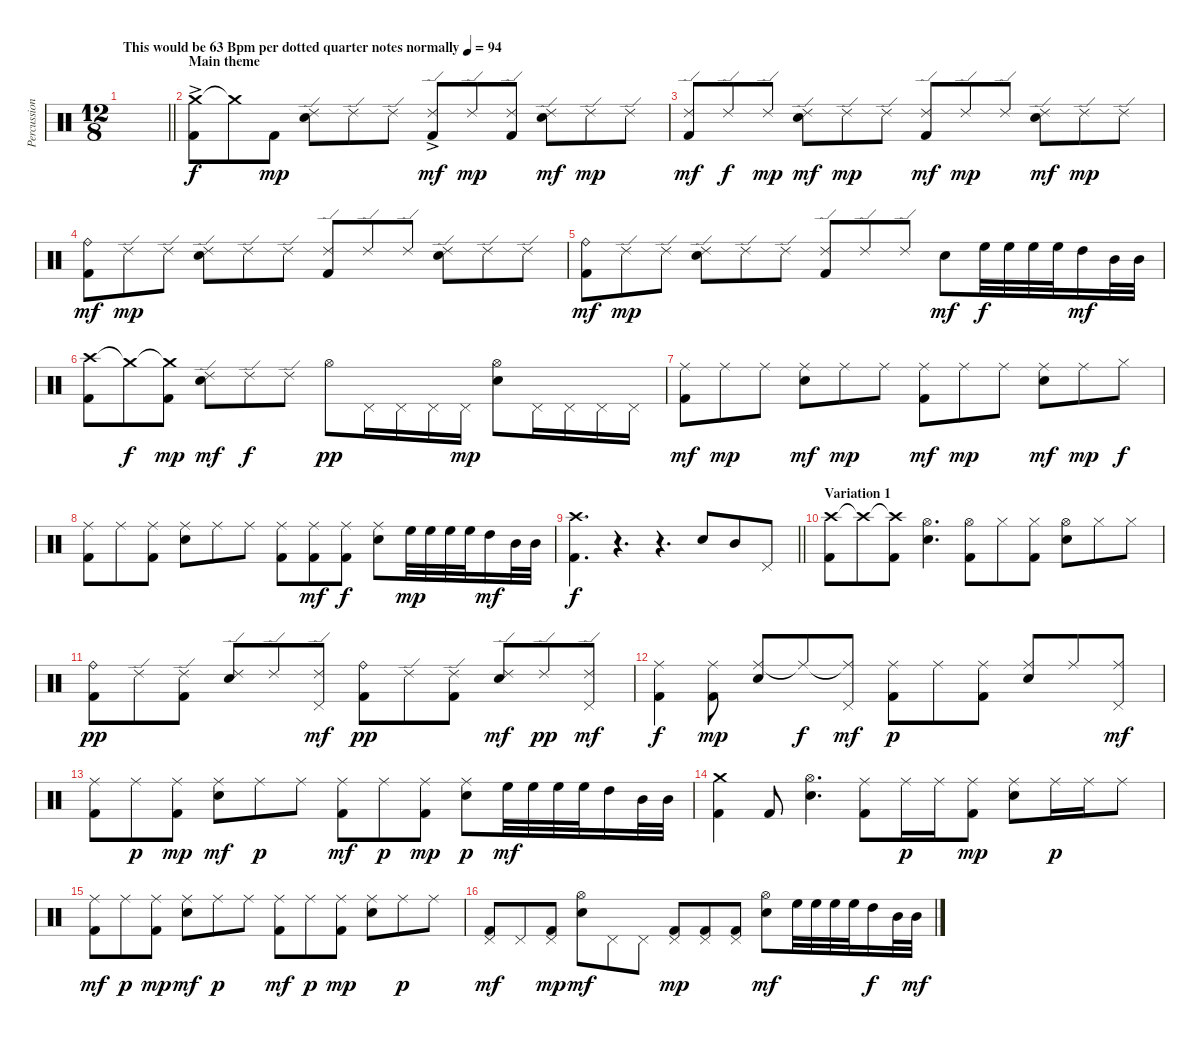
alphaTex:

\track ("Percussions" "Percussion") {instrument percussion}
\staff {score}
\articulation defaults
\ts (12 8)
\tempo (94 "This would be 63 Bpm per dotted quarter notes normally")
\tempo 84
\tempo (94 "This would be 63 Bpm per dotted quarter notes normally")
\clef neutral
\barLineRight lightlight
\ks c
|
\section ("" "Main theme")
("Crash medium (hit)" "Kick (hit) 2"{ac}).8 "Crash medium (hit)"{t}.8 "Kick (hit) 2".8{dy mp} ("Ride (edge) 2" "Electric Snare (hit)").8 "Ride (edge) 2".8 "Ride (edge) 2".8 ("Ride (edge) 2" "Kick (hit) 2"{ac}).8{dy mf} "Ride (edge) 2".8{dy mp} ("Ride (edge) 2" "Kick (hit) 2").8 ("Ride (edge) 2" "Electric Snare (hit)").8{dy mf} "Ride (edge) 2".8{dy mp} "Ride (edge) 2".8 |
("Ride (edge) 2" "Kick (hit) 2").8{dy mf} "Ride (edge) 2".8{dy f} "Ride (edge) 2".8{dy mp} ("Ride (edge) 2" "Electric Snare (hit)").8{dy mf} "Ride (edge) 2".8{dy mp} "Ride (edge) 2".8 ("Ride (edge) 2" "Kick (hit) 2").8{dy mf} "Ride (edge) 2".8{dy mp} "Ride (edge) 2".8 ("Ride (edge) 2" "Electric Snare (hit)").8{dy mf} "Ride (edge) 2".8{dy mp} "Ride (edge) 2".8 |
("Ride (bell)" "Kick (hit) 2").8{dy mf} "Ride (edge) 2".8{dy mp} "Ride (edge) 2".8 ("Ride (edge) 2" "Electric Snare (hit)").8 "Ride (edge) 2".8 "Ride (edge) 2".8 ("Ride (edge) 2" "Kick (hit) 2").8 "Ride (edge) 2".8 "Ride (edge) 2".8 ("Ride (edge) 2" "Electric Snare (hit)").8 "Ride (edge) 2".8 "Ride (edge) 2".8 |
("Ride (bell)" "Kick (hit) 2").8{dy mf} "Ride (edge) 2".8{dy mp} "Ride (edge) 2".8 ("Ride (edge) 2" "Electric Snare (hit)").8 "Ride (edge) 2".8 "Ride (edge) 2".8 ("Ride (edge) 2" "Kick (hit) 2").8 "Ride (edge) 2".8 "Ride (edge) 2".8 "Electric Snare (hit)".8{dy mf} "High Floor Tom (hit)".32{dy f} "High Floor Tom (hit)".32 "High Floor Tom (hit)".32 "High Floor Tom (hit)".32 "High Tom (hit)".16{dy mf} "Mid Tom (hit)".32 "Mid Tom (hit)".32 |
("Crash high (hit)" "Kick (hit) 2").8 "Crash medium (hit)"{t}.8{dy f} ("Crash medium (hit)"{t} "Kick (hit) 2").8{dy mp} ("Ride (edge) 2" "Electric Snare (hit)").8{dy mf} "Ride (edge) 2".8{dy f} "Ride (edge) 2".8 "Hi-Hat (open)".8{dy pp} "Pedal Hi-Hat (hit)".16 "Pedal Hi-Hat (hit)".16 "Pedal Hi-Hat (hit)".16 "Pedal Hi-Hat (hit)".16{dy mp} ("Hi-Hat (open)" "Electric Snare (hit)").8 "Pedal Hi-Hat (hit)".16 "Pedal Hi-Hat (hit)".16 "Pedal Hi-Hat (hit)".16 "Pedal Hi-Hat (hit)".16 |
("Ride (middle)" "Kick (hit) 2").8{dy mf} "Ride (middle)".8{dy mp} "Ride (middle)".8 ("Ride (middle)" "Electric Snare (hit)").8{dy mf} "Ride (middle)".8{dy mp} "Ride (middle)".8 ("Ride (middle)" "Kick (hit) 2").8{dy mf} "Ride (middle)".8{dy mp} "Ride (middle)".8 ("Ride (middle)" "Electric Snare (hit)").8{dy mf} "Ride (middle)".8{dy mp} "Hi-Hat (closed)".8{dy f} |
("Ride (middle)" "Kick (hit) 2").8 "Ride (middle)".8 ("Ride (middle)" "Kick (hit) 2").8 ("Ride (middle)" "Electric Snare (hit)").8 "Ride (middle)".8 "Ride (middle)".8 ("Ride (middle)" "Kick (hit) 2").8 ("Ride (middle)" "Kick (hit) 2").8{dy mf} ("Ride (middle)" "Kick (hit) 2").8{dy f} ("Ride (middle)" "Electric Snare (hit)").8 "High Floor Tom (hit)".32{dy mp} "High Floor Tom (hit)".32 "High Floor Tom (hit)".32 "High Floor Tom (hit)".32 "High Tom (hit)".16{dy mf} "Mid Tom (hit)".32 "Mid Tom (hit)".32 |
\barLineRight lightlight
("Crash high (hit)" "Kick (hit) 2").4{d dy f} r.4{d} r.4{d} "Electric Snare (hit)".8 "Mid Tom (hit)".8 "Pedal Hi-Hat (hit)".8 |
\section ("" "Variation 1")
("Crash high (hit)" "Kick (hit) 2").8 "Crash high (hit)"{t}.8 ("Crash high (hit)"{t} "Kick (hit) 2").8 ("Hi-Hat (open)" "Electric Snare (hit)").4{d} ("Hi-Hat (open)" "Kick (hit) 2").8 "Hi-Hat (closed)".8 ("Hi-Hat (closed)" "Kick (hit) 2").8 ("Hi-Hat (open)" "Electric Snare (hit)").8 "Hi-Hat (closed)".8 "Hi-Hat (closed)".8 |
("Ride (bell)" "Kick (hit) 2").8{dy pp} "Ride (edge) 2".8 ("Ride (edge) 2" "Kick (hit) 2").8 ("Ride (edge) 2" "Electric Snare (hit)").8 "Ride (edge) 2".8 ("Ride (edge) 2" "Pedal Hi-Hat (hit)").8{dy mf} ("Ride (bell)" "Kick (hit) 2").8{dy pp} "Ride (edge) 2".8 ("Ride (edge) 2" "Kick (hit) 2").8 ("Ride (edge) 2" "Electric Snare (hit)").8{dy mf} "Ride (edge) 2".8{dy pp} ("Ride (edge) 2" "Pedal Hi-Hat (hit)").8{dy mf} |
("Ride (middle)" "Kick (hit) 2").4{dy f} ("Ride (middle)" "Kick (hit) 2").8{dy mp} ("Ride (middle)" "Electric Snare (hit)").8 "Ride (middle)"{t}.8{dy f} ("Ride (middle)"{t} "Pedal Hi-Hat (hit)").8{dy mf} ("Ride (middle)" "Kick (hit) 2").8{dy p} "Ride (middle)".8 ("Ride (middle)" "Kick (hit) 2").8 ("Ride (middle)" "Electric Snare (hit)").8 "Ride (middle)".8 ("Ride (middle)" "Pedal Hi-Hat (hit)").8{dy mf} |
("Ride (middle)" "Kick (hit) 2").8 "Ride (middle)".8{dy p} ("Ride (middle)" "Kick (hit) 2").8{dy mp} ("Ride (middle)" "Electric Snare (hit)").8{dy mf} "Ride (middle)".8{dy p} "Ride (middle)".8 ("Ride (middle)" "Kick (hit) 2").8{dy mf} "Ride (middle)".8{dy p} ("Ride (middle)" "Kick (hit) 2").8{dy mp} ("Ride (middle)" "Electric Snare (hit)").8{dy p} "High Floor Tom (hit)".32{dy mf} "High Floor Tom (hit)".32 "High Floor Tom (hit)".32 "High Floor Tom (hit)".32 "High Tom (hit)".16 "Mid Tom (hit)".32 "Mid Tom (hit)".32 |
("Crash medium (hit)" "Kick (hit) 2").4 "Kick (hit) 2".8 ("Hi-Hat (open)" "Electric Snare (hit)").4{d} ("Ride (middle)" "Kick (hit) 2").8 "Ride (middle)".16{dy p} "Ride (middle)".16 ("Ride (middle)" "Kick (hit) 2").8{dy mp} ("Ride (middle)" "Electric Snare (hit)").8 "Ride (middle)".16{dy p} "Ride (middle)".16 "Ride (middle)".8 |
("Ride (middle)" "Kick (hit) 2").8{dy mf} "Ride (middle)".8{dy p} ("Ride (middle)" "Kick (hit) 2").8{dy mp} ("Ride (middle)" "Electric Snare (hit)").8{dy mf} "Ride (middle)".8{dy p} "Ride (middle)".8 ("Ride (middle)" "Kick (hit) 2").8{dy mf} "Ride (middle)".8{dy p} ("Ride (middle)" "Kick (hit) 2").8{dy mp} ("Ride (middle)" "Electric Snare (hit)").8 "Ride (middle)".8{dy p} "Ride (middle)".8 |
("Pedal Hi-Hat (hit)" "Kick (hit) 2").8{dy mf} "Pedal Hi-Hat (hit)".8 ("Pedal Hi-Hat (hit)" "Kick (hit) 2").8{dy mp} ("Hi-Hat (open)" "Electric Snare (hit)").8{dy mf} "Pedal Hi-Hat (hit)".8 "Pedal Hi-Hat (hit)".8 ("Pedal Hi-Hat (hit)" "Kick (hit) 2").8{dy mp} ("Pedal Hi-Hat (hit)" "Kick (hit) 2").8 ("Pedal Hi-Hat (hit)" "Kick (hit) 2").8 ("Hi-Hat (open)" "Electric Snare (hit)").8{dy mf} "High Floor Tom (hit)".32 "High Floor Tom (hit)".32 "High Floor Tom (hit)".32 "High Floor Tom (hit)".32 "High Tom (hit)".16{dy f} "Mid Tom (hit)".32 "Mid Tom (hit)".32{dy mf}
